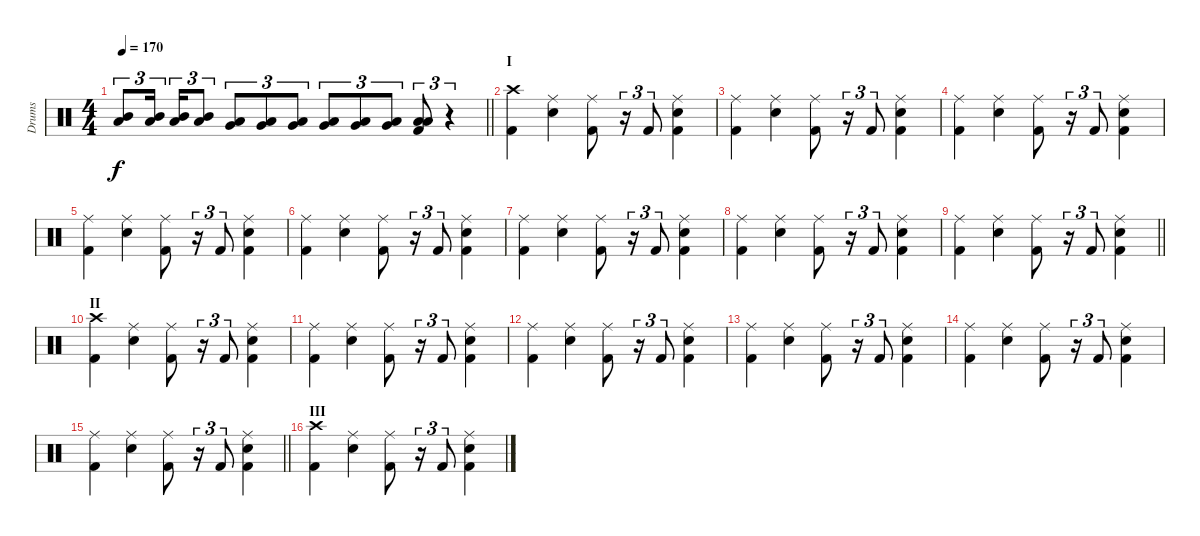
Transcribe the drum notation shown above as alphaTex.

\track ("Drums" "Drums") {instrument percussion}
\staff {score}
\articulation defaults
\ts (4 4)
\tempo 170
\clef neutral
\barLineRight lightlight
\ks c
("Mid Tom (hit)" "Low Tom (hit)").8{tu (3 2) dy f} ("Mid Tom (hit)" "Low Tom (hit)").16{tu (3 2) beam splitsecondary} ("Mid Tom (hit)" "Low Tom (hit)").16{tu (3 2)} ("Mid Tom (hit)" "Low Tom (hit)").8{tu (3 2)} ("Low Tom (hit)" "Very Low Tom (hit)").8{tu (3 2)} ("Low Tom (hit)" "Very Low Tom (hit)").8{tu (3 2)} ("Low Tom (hit)" "Very Low Tom (hit)").8{tu (3 2)} ("Very Low Tom (hit)" "Low Floor Tom (hit)").8{tu (3 2)} ("Very Low Tom (hit)" "Low Floor Tom (hit)").8{tu (3 2)} ("Very Low Tom (hit)" "Low Floor Tom (hit)").8{tu (3 2)} ("Kick (hit) 2" "Low Floor Tom (hit)" "Low Floor Tom (hit)").8{tu (3 2)} r.4{tu (3 2)} |
\section ("" "I")
("Kick (hit) 2" "Crash high (hit)").4 ("Snare (hit) 2" "Ride (middle)").4 ("Kick (hit) 2" "Ride (middle)").8 r.16{tu (3 2)} "Kick (hit) 2".8{tu (3 2)} ("Kick (hit) 2" "Snare (hit) 2" "Ride (middle)").4 |
("Kick (hit) 2" "Ride (middle)").4 ("Snare (hit) 2" "Ride (middle)").4 ("Kick (hit) 2" "Ride (middle)").8 r.16{tu (3 2)} "Kick (hit) 2".8{tu (3 2)} ("Kick (hit) 2" "Snare (hit) 2" "Ride (middle)").4 |
("Kick (hit) 2" "Ride (middle)").4 ("Snare (hit) 2" "Ride (middle)").4 ("Kick (hit) 2" "Ride (middle)").8 r.16{tu (3 2)} "Kick (hit) 2".8{tu (3 2)} ("Kick (hit) 2" "Snare (hit) 2" "Ride (middle)").4 |
("Kick (hit) 2" "Ride (middle)").4 ("Snare (hit) 2" "Ride (middle)").4 ("Kick (hit) 2" "Ride (middle)").8 r.16{tu (3 2)} "Kick (hit) 2".8{tu (3 2)} ("Kick (hit) 2" "Snare (hit) 2" "Ride (middle)").4 |
("Kick (hit) 2" "Ride (middle)").4 ("Snare (hit) 2" "Ride (middle)").4 ("Kick (hit) 2" "Ride (middle)").8 r.16{tu (3 2)} "Kick (hit) 2".8{tu (3 2)} ("Kick (hit) 2" "Snare (hit) 2" "Ride (middle)").4 |
("Kick (hit) 2" "Ride (middle)").4 ("Snare (hit) 2" "Ride (middle)").4 ("Kick (hit) 2" "Ride (middle)").8 r.16{tu (3 2)} "Kick (hit) 2".8{tu (3 2)} ("Kick (hit) 2" "Snare (hit) 2" "Ride (middle)").4 |
("Kick (hit) 2" "Ride (middle)").4 ("Snare (hit) 2" "Ride (middle)").4 ("Kick (hit) 2" "Ride (middle)").8 r.16{tu (3 2)} "Kick (hit) 2".8{tu (3 2)} ("Kick (hit) 2" "Snare (hit) 2" "Ride (middle)").4 |
\barLineRight lightlight
("Kick (hit) 2" "Ride (middle)").4 ("Snare (hit) 2" "Ride (middle)").4 ("Kick (hit) 2" "Ride (middle)").8 r.16{tu (3 2)} "Kick (hit) 2".8{tu (3 2)} ("Kick (hit) 2" "Snare (hit) 2" "Ride (middle)").4 |
\section ("" "II")
("Kick (hit) 2" "Crash high (hit)").4 ("Snare (hit) 2" "Ride (middle)").4 ("Kick (hit) 2" "Ride (middle)").8 r.16{tu (3 2)} "Kick (hit) 2".8{tu (3 2)} ("Kick (hit) 2" "Snare (hit) 2" "Ride (middle)").4 |
("Kick (hit) 2" "Ride (middle)").4 ("Snare (hit) 2" "Ride (middle)").4 ("Kick (hit) 2" "Ride (middle)").8 r.16{tu (3 2)} "Kick (hit) 2".8{tu (3 2)} ("Kick (hit) 2" "Snare (hit) 2" "Ride (middle)").4 |
("Kick (hit) 2" "Ride (middle)").4 ("Snare (hit) 2" "Ride (middle)").4 ("Kick (hit) 2" "Ride (middle)").8 r.16{tu (3 2)} "Kick (hit) 2".8{tu (3 2)} ("Kick (hit) 2" "Snare (hit) 2" "Ride (middle)").4 |
("Kick (hit) 2" "Ride (middle)").4 ("Snare (hit) 2" "Ride (middle)").4 ("Kick (hit) 2" "Ride (middle)").8 r.16{tu (3 2)} "Kick (hit) 2".8{tu (3 2)} ("Kick (hit) 2" "Snare (hit) 2" "Ride (middle)").4 |
("Kick (hit) 2" "Ride (middle)").4 ("Snare (hit) 2" "Ride (middle)").4 ("Kick (hit) 2" "Ride (middle)").8 r.16{tu (3 2)} "Kick (hit) 2".8{tu (3 2)} ("Kick (hit) 2" "Snare (hit) 2" "Ride (middle)").4 |
\barLineRight lightlight
("Kick (hit) 2" "Ride (middle)").4 ("Snare (hit) 2" "Ride (middle)").4 ("Kick (hit) 2" "Ride (middle)").8 r.16{tu (3 2)} "Kick (hit) 2".8{tu (3 2)} ("Kick (hit) 2" "Snare (hit) 2" "Ride (middle)").4 |
\section ("" "III")
("Kick (hit) 2" "Crash high (hit)").4 ("Snare (hit) 2" "Ride (middle)").4 ("Kick (hit) 2" "Ride (middle)").8 r.16{tu (3 2)} "Kick (hit) 2".8{tu (3 2)} ("Kick (hit) 2" "Snare (hit) 2" "Ride (middle)").4
